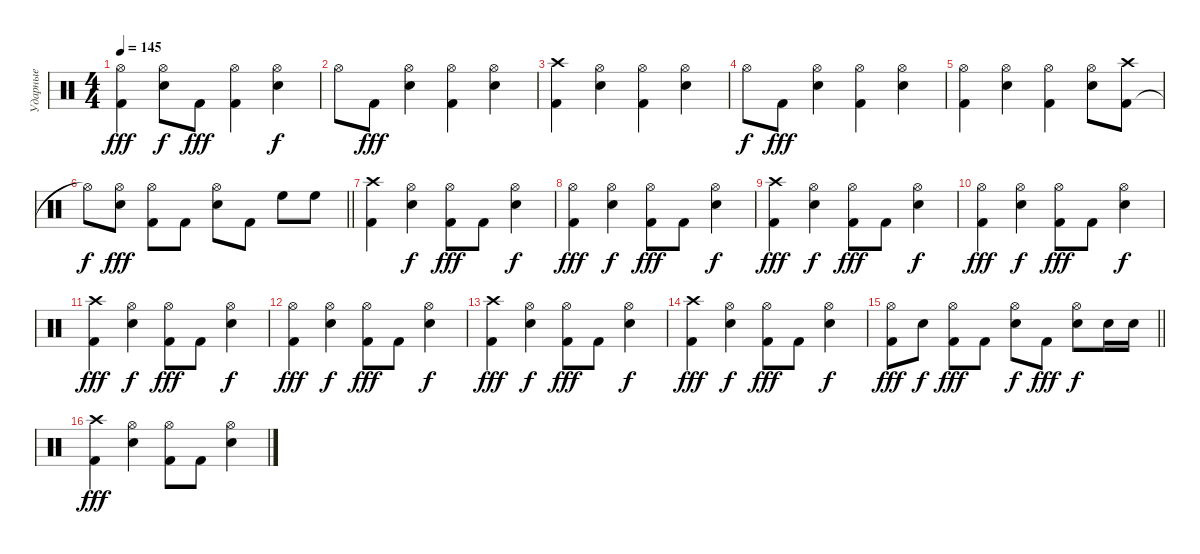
\track ("Ударные" "Ударные") {instrument percussion}
\staff {score}
\articulation defaults
\ts (4 4)
\tempo 145
\clef neutral
\ks c
("Kick (hit) 2" "Hi-Hat (open)").4{dy fff} ("Snare (hit) 2" "Hi-Hat (open)").8{dy f} "Kick (hit) 2".8{dy fff} ("Kick (hit) 2" "Hi-Hat (open)").4 ("Snare (hit) 2" "Hi-Hat (open)").4{dy f} |
"Hi-Hat (open)".8 "Kick (hit) 2".8{dy fff} ("Snare (hit) 2" "Hi-Hat (open)").4 ("Kick (hit) 2" "Hi-Hat (open)").4 ("Snare (hit) 2" "Hi-Hat (open)").4 |
("Kick (hit) 2" "Crash high (hit)").4 ("Snare (hit) 2" "Hi-Hat (open)").4 ("Kick (hit) 2" "Hi-Hat (open)").4 ("Snare (hit) 2" "Hi-Hat (open)").4 |
"Hi-Hat (open)".8{dy f} "Kick (hit) 2".8{dy fff} ("Snare (hit) 2" "Hi-Hat (open)").4 ("Kick (hit) 2" "Hi-Hat (open)").4 ("Snare (hit) 2" "Hi-Hat (open)").4 |
("Kick (hit) 2" "Hi-Hat (open)").4 ("Snare (hit) 2" "Hi-Hat (open)").4 ("Kick (hit) 2" "Hi-Hat (open)").4 ("Snare (hit) 2" "Hi-Hat (open)").8 ("Kick (hit) 2" "Crash high (hit)").8 |
\barLineRight lightlight "Hi-Hat (open)"{t}.8{dy f}
("Snare (hit) 2" "Hi-Hat (open)").8{dy fff} ("Kick (hit) 2" "Hi-Hat (open)").8 "Kick (hit) 2".8 ("Snare (hit) 2" "Hi-Hat (open)").8 "Kick (hit) 2".8 "High Floor Tom (hit)".8 "High Floor Tom (hit)".8 |
("Kick (hit) 2" "Crash high (hit)").4 ("Snare (hit) 2" "Hi-Hat (open)").4{dy f} ("Kick (hit) 2" "Hi-Hat (open)").8{dy fff} "Kick (hit) 2".8 ("Snare (hit) 2" "Hi-Hat (open)").4{dy f} |
("Kick (hit) 2" "Hi-Hat (open)").4{dy fff} ("Snare (hit) 2" "Hi-Hat (open)").4{dy f} ("Kick (hit) 2" "Hi-Hat (open)").8{dy fff} "Kick (hit) 2".8 ("Snare (hit) 2" "Hi-Hat (open)").4{dy f} |
("Kick (hit) 2" "Crash high (hit)").4{dy fff} ("Snare (hit) 2" "Hi-Hat (open)").4{dy f} ("Kick (hit) 2" "Hi-Hat (open)").8{dy fff} "Kick (hit) 2".8 ("Snare (hit) 2" "Hi-Hat (open)").4{dy f} |
("Kick (hit) 2" "Hi-Hat (open)").4{dy fff} ("Snare (hit) 2" "Hi-Hat (open)").4{dy f} ("Kick (hit) 2" "Hi-Hat (open)").8{dy fff} "Kick (hit) 2".8 ("Snare (hit) 2" "Hi-Hat (open)").4{dy f} |
("Kick (hit) 2" "Crash high (hit)").4{dy fff} ("Snare (hit) 2" "Hi-Hat (open)").4{dy f} ("Kick (hit) 2" "Hi-Hat (open)").8{dy fff} "Kick (hit) 2".8 ("Snare (hit) 2" "Hi-Hat (open)").4{dy f} |
("Kick (hit) 2" "Hi-Hat (open)").4{dy fff} ("Snare (hit) 2" "Hi-Hat (open)").4{dy f} ("Kick (hit) 2" "Hi-Hat (open)").8{dy fff} "Kick (hit) 2".8 ("Snare (hit) 2" "Hi-Hat (open)").4{dy f} |
("Kick (hit) 2" "Crash high (hit)").4{dy fff} ("Snare (hit) 2" "Hi-Hat (open)").4{dy f} ("Kick (hit) 2" "Hi-Hat (open)").8{dy fff} "Kick (hit) 2".8 ("Snare (hit) 2" "Hi-Hat (open)").4{dy f} |
("Kick (hit) 2" "Crash high (hit)").4{dy fff} ("Snare (hit) 2" "Hi-Hat (open)").4{dy f} ("Kick (hit) 2" "Hi-Hat (open)").8{dy fff} "Kick (hit) 2".8 ("Snare (hit) 2" "Hi-Hat (open)").4{dy f} |
\barLineRight lightlight
("Kick (hit) 2" "Hi-Hat (open)").8{dy fff} "Snare (hit) 2".8{dy f} ("Kick (hit) 2" "Hi-Hat (open)").8{dy fff} "Kick (hit) 2".8 ("Snare (hit) 2" "Hi-Hat (open)").8{dy f} "Kick (hit) 2".8{dy fff} ("Snare (hit) 2" "Hi-Hat (open)").8{dy f} "Snare (hit) 2".16 "Snare (hit) 2".16 |
("Kick (hit) 2" "Crash high (hit)").4{dy fff} ("Snare (hit) 2" "Hi-Hat (open)").4 ("Kick (hit) 2" "Hi-Hat (open)").8 "Kick (hit) 2".8 ("Snare (hit) 2" "Hi-Hat (open)").4
